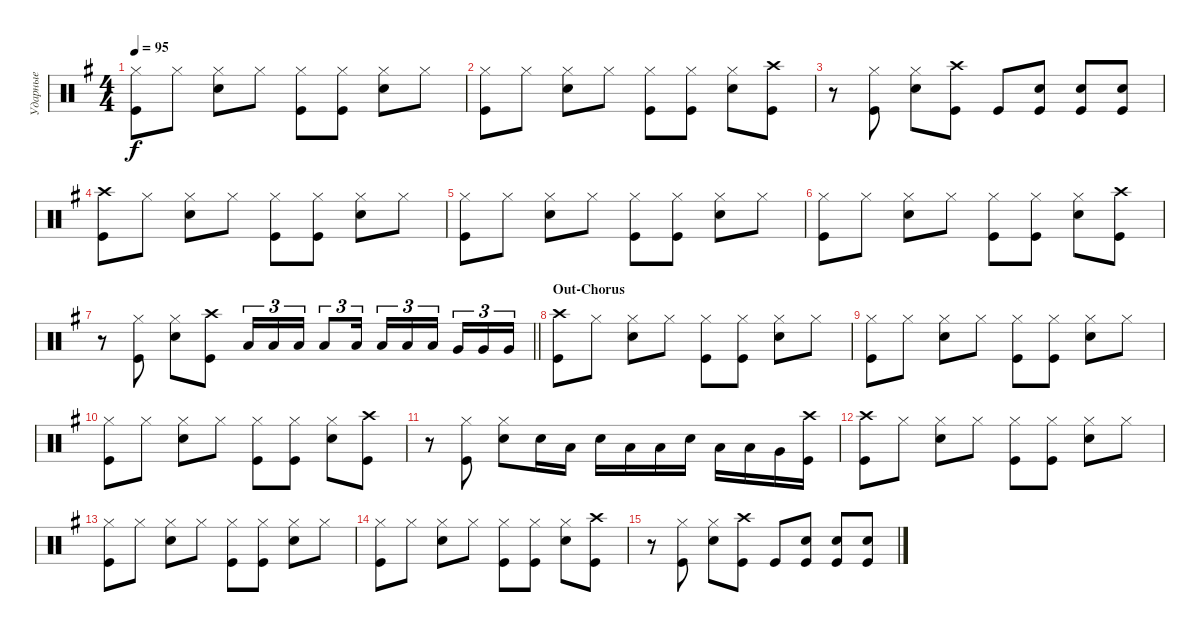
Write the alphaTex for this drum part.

\track ("Ударные" "Ударные") {instrument percussion}
\staff {score}
\articulation defaults
\ts (4 4)
\tempo 95
\clef neutral
\ks eminor
("Kick (hit)" "Hi-Hat (closed)").8{dy f} "Hi-Hat (closed)".8 ("Snare (hit) 2" "Hi-Hat (closed)").8 "Hi-Hat (closed)".8 ("Kick (hit)" "Hi-Hat (closed)").8 ("Hi-Hat (closed)" "Kick (hit)").8 ("Snare (hit) 2" "Hi-Hat (closed)").8 "Hi-Hat (closed)".8 |
("Kick (hit)" "Hi-Hat (closed)").8 "Hi-Hat (closed)".8 ("Snare (hit) 2" "Hi-Hat (closed)").8 "Hi-Hat (closed)".8 ("Kick (hit)" "Hi-Hat (closed)").8 ("Hi-Hat (closed)" "Kick (hit)").8 ("Snare (hit) 2" "Hi-Hat (closed)").8 ("Kick (hit)" "Crash high (hit)").8 |
r.8 ("Hi-Hat (closed)" "Kick (hit)").8 ("Snare (hit) 2" "Hi-Hat (closed)").8 ("Crash high (hit)" "Kick (hit)").8 "Kick (hit)".8 ("Snare (hit) 2" "Kick (hit)").8 ("Snare (hit) 2" "Kick (hit)").8 ("Kick (hit)" "Snare (hit) 2").8 |
("Kick (hit)" "Crash high (hit)").8 "Hi-Hat (closed)".8 ("Snare (hit) 2" "Hi-Hat (closed)").8 "Hi-Hat (closed)".8 ("Kick (hit)" "Hi-Hat (closed)").8 ("Hi-Hat (closed)" "Kick (hit)").8 ("Snare (hit) 2" "Hi-Hat (closed)").8 "Hi-Hat (closed)".8 |
("Kick (hit)" "Hi-Hat (closed)").8 "Hi-Hat (closed)".8 ("Snare (hit) 2" "Hi-Hat (closed)").8 "Hi-Hat (closed)".8 ("Kick (hit)" "Hi-Hat (closed)").8 ("Hi-Hat (closed)" "Kick (hit)").8 ("Snare (hit) 2" "Hi-Hat (closed)").8 "Hi-Hat (closed)".8 |
("Kick (hit)" "Hi-Hat (closed)").8 "Hi-Hat (closed)".8 ("Snare (hit) 2" "Hi-Hat (closed)").8 "Hi-Hat (closed)".8 ("Kick (hit)" "Hi-Hat (closed)").8 ("Hi-Hat (closed)" "Kick (hit)").8 ("Snare (hit) 2" "Hi-Hat (closed)").8 ("Kick (hit)" "Crash high (hit)").8 |
\barLineRight lightlight
r.8 ("Hi-Hat (closed)" "Kick (hit)").8 ("Snare (hit) 2" "Hi-Hat (closed)").8 ("Crash high (hit)" "Kick (hit)").8 "Low Tom (hit)".16{tu (3 2)} "Low Tom (hit)".16{tu (3 2)} "Low Tom (hit)".16{tu (3 2)} "Low Tom (hit)".8{tu (3 2)} "Low Tom (hit)".16{tu (3 2)} "Low Tom (hit)".16{tu (3 2)} "Low Tom (hit)".16{tu (3 2)} "Low Tom (hit)".16{tu (3 2) beam splitsecondary} "Very Low Tom (hit)".16{tu (3 2)} "Very Low Tom (hit)".16{tu (3 2)} "Very Low Tom (hit)".16{tu (3 2)} |
\section ("" "Out-Chorus")
("Kick (hit)" "Crash high (hit)").8 "Hi-Hat (closed)".8 ("Snare (hit) 2" "Hi-Hat (closed)").8 "Hi-Hat (closed)".8 ("Kick (hit)" "Hi-Hat (closed)").8 ("Hi-Hat (closed)" "Kick (hit)").8 ("Snare (hit) 2" "Hi-Hat (closed)").8 "Hi-Hat (closed)".8 |
("Kick (hit)" "Hi-Hat (closed)").8 "Hi-Hat (closed)".8 ("Snare (hit) 2" "Hi-Hat (closed)").8 "Hi-Hat (closed)".8 ("Kick (hit)" "Hi-Hat (closed)").8 ("Hi-Hat (closed)" "Kick (hit)").8 ("Snare (hit) 2" "Hi-Hat (closed)").8 "Hi-Hat (closed)".8 |
("Kick (hit)" "Hi-Hat (closed)").8 "Hi-Hat (closed)".8 ("Snare (hit) 2" "Hi-Hat (closed)").8 "Hi-Hat (closed)".8 ("Kick (hit)" "Hi-Hat (closed)").8 ("Hi-Hat (closed)" "Kick (hit)").8 ("Snare (hit) 2" "Hi-Hat (closed)").8 ("Kick (hit)" "Crash high (hit)").8 |
r.8 ("Hi-Hat (closed)" "Kick (hit)").8 ("Snare (hit) 2" "Hi-Hat (closed)").8 "Snare (hit) 2".16 "Low Tom (hit)".16 "Snare (hit) 2".16 "Low Tom (hit)".16 "Low Tom (hit)".16 "Snare (hit) 2".16 "Low Tom (hit)".16 "Low Tom (hit)".16 "Very Low Tom (hit)".16 ("Kick (hit)" "Crash high (hit)").16 |
("Kick (hit)" "Crash high (hit)").8{volume 0} "Hi-Hat (closed)".8 ("Snare (hit) 2" "Hi-Hat (closed)").8 "Hi-Hat (closed)".8 ("Kick (hit)" "Hi-Hat (closed)").8 ("Hi-Hat (closed)" "Kick (hit)").8 ("Snare (hit) 2" "Hi-Hat (closed)").8 "Hi-Hat (closed)".8 |
("Kick (hit)" "Hi-Hat (closed)").8 "Hi-Hat (closed)".8 ("Snare (hit) 2" "Hi-Hat (closed)").8 "Hi-Hat (closed)".8 ("Kick (hit)" "Hi-Hat (closed)").8 ("Hi-Hat (closed)" "Kick (hit)").8 ("Snare (hit) 2" "Hi-Hat (closed)").8 "Hi-Hat (closed)".8 |
("Kick (hit)" "Hi-Hat (closed)").8 "Hi-Hat (closed)".8 ("Snare (hit) 2" "Hi-Hat (closed)").8 "Hi-Hat (closed)".8 ("Kick (hit)" "Hi-Hat (closed)").8 ("Hi-Hat (closed)" "Kick (hit)").8 ("Snare (hit) 2" "Hi-Hat (closed)").8 ("Kick (hit)" "Crash high (hit)").8 |
r.8 ("Hi-Hat (closed)" "Kick (hit)").8 ("Snare (hit) 2" "Hi-Hat (closed)").8 ("Crash high (hit)" "Kick (hit)").8 "Kick (hit)".8 ("Snare (hit) 2" "Kick (hit)").8 ("Snare (hit) 2" "Kick (hit)").8 ("Kick (hit)" "Snare (hit) 2").8
